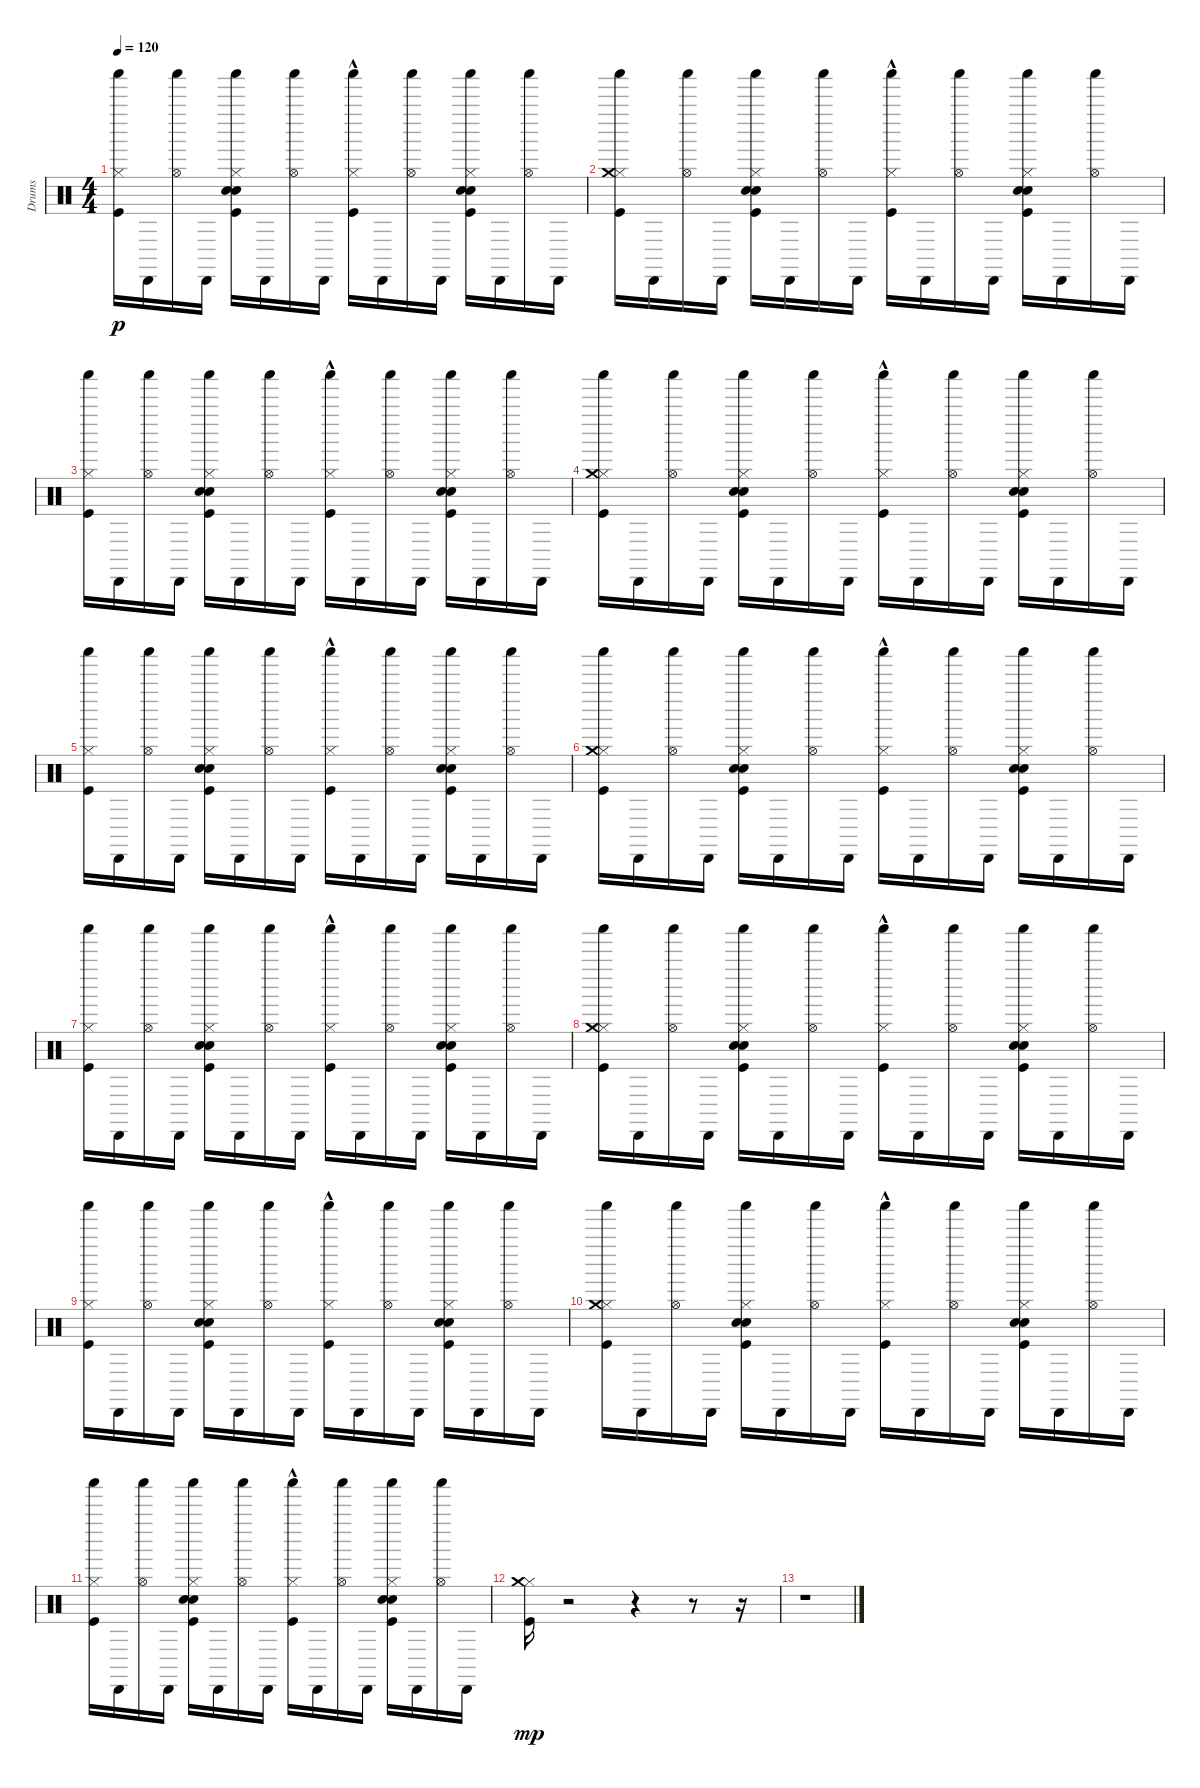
\track ("Drums" "Drums") {instrument percussion}
\staff {score}
\articulation defaults
\ts (4 4)
\tempo 120
\clef neutral
\ks c
("Kick (hit)" "Hi-Hat (closed)" "Shaker (hit)").16{dy p} "Cabasa (hit)".16 ("Hi-Hat (open)" "Shaker (hit)").16 "Cabasa (hit)".16 ("Kick (hit)" "Snare (hit) 2" "Electric Snare (hit)" "Hi-Hat (closed)" "Shaker (hit)").16 "Cabasa (hit)".16 ("Hi-Hat (open)" "Shaker (hit)").16 "Cabasa (hit)".16 ("Kick (hit)" "Hi-Hat (closed)" "Shaker (hit)"{hac}).16 "Cabasa (hit)".16 ("Hi-Hat (open)" "Shaker (hit)").16 "Cabasa (hit)".16 ("Kick (hit)" "Snare (hit) 2" "Electric Snare (hit)" "Hi-Hat (closed)" "Shaker (hit)").16 "Cabasa (hit)".16 ("Hi-Hat (open)" "Shaker (hit)").16 "Cabasa (hit)".16 |
("Kick (hit)" "Hi-Hat (closed)" "Crash medium (hit)" "Shaker (hit)").16 "Cabasa (hit)".16 ("Hi-Hat (open)" "Shaker (hit)").16 "Cabasa (hit)".16 ("Kick (hit)" "Snare (hit) 2" "Electric Snare (hit)" "Hi-Hat (closed)" "Shaker (hit)").16 "Cabasa (hit)".16 ("Hi-Hat (open)" "Shaker (hit)").16 "Cabasa (hit)".16 ("Kick (hit)" "Hi-Hat (closed)" "Shaker (hit)"{hac}).16 "Cabasa (hit)".16 ("Hi-Hat (open)" "Shaker (hit)").16 "Cabasa (hit)".16 ("Kick (hit)" "Snare (hit) 2" "Electric Snare (hit)" "Hi-Hat (closed)" "Shaker (hit)").16 "Cabasa (hit)".16 ("Hi-Hat (open)" "Shaker (hit)").16 "Cabasa (hit)".16 |
("Kick (hit)" "Hi-Hat (closed)" "Shaker (hit)").16 "Cabasa (hit)".16 ("Hi-Hat (open)" "Shaker (hit)").16 "Cabasa (hit)".16 ("Kick (hit)" "Snare (hit) 2" "Electric Snare (hit)" "Hi-Hat (closed)" "Shaker (hit)").16 "Cabasa (hit)".16 ("Hi-Hat (open)" "Shaker (hit)").16 "Cabasa (hit)".16 ("Kick (hit)" "Hi-Hat (closed)" "Shaker (hit)"{hac}).16 "Cabasa (hit)".16 ("Hi-Hat (open)" "Shaker (hit)").16 "Cabasa (hit)".16 ("Kick (hit)" "Snare (hit) 2" "Electric Snare (hit)" "Hi-Hat (closed)" "Shaker (hit)").16 "Cabasa (hit)".16 ("Hi-Hat (open)" "Shaker (hit)").16 "Cabasa (hit)".16 |
("Kick (hit)" "Hi-Hat (closed)" "Crash medium (hit)" "Shaker (hit)").16 "Cabasa (hit)".16 ("Hi-Hat (open)" "Shaker (hit)").16 "Cabasa (hit)".16 ("Kick (hit)" "Snare (hit) 2" "Electric Snare (hit)" "Hi-Hat (closed)" "Shaker (hit)").16 "Cabasa (hit)".16 ("Hi-Hat (open)" "Shaker (hit)").16 "Cabasa (hit)".16 ("Kick (hit)" "Hi-Hat (closed)" "Shaker (hit)"{hac}).16 "Cabasa (hit)".16 ("Hi-Hat (open)" "Shaker (hit)").16 "Cabasa (hit)".16 ("Kick (hit)" "Snare (hit) 2" "Electric Snare (hit)" "Hi-Hat (closed)" "Shaker (hit)").16 "Cabasa (hit)".16 ("Hi-Hat (open)" "Shaker (hit)").16 "Cabasa (hit)".16 |
("Kick (hit)" "Hi-Hat (closed)" "Shaker (hit)").16 "Cabasa (hit)".16 ("Hi-Hat (open)" "Shaker (hit)").16 "Cabasa (hit)".16 ("Kick (hit)" "Snare (hit) 2" "Electric Snare (hit)" "Hi-Hat (closed)" "Shaker (hit)").16 "Cabasa (hit)".16 ("Hi-Hat (open)" "Shaker (hit)").16 "Cabasa (hit)".16 ("Kick (hit)" "Hi-Hat (closed)" "Shaker (hit)"{hac}).16 "Cabasa (hit)".16 ("Hi-Hat (open)" "Shaker (hit)").16 "Cabasa (hit)".16 ("Kick (hit)" "Snare (hit) 2" "Electric Snare (hit)" "Hi-Hat (closed)" "Shaker (hit)").16 "Cabasa (hit)".16 ("Hi-Hat (open)" "Shaker (hit)").16 "Cabasa (hit)".16 |
("Kick (hit)" "Hi-Hat (closed)" "Crash medium (hit)" "Shaker (hit)").16 "Cabasa (hit)".16 ("Hi-Hat (open)" "Shaker (hit)").16 "Cabasa (hit)".16 ("Kick (hit)" "Snare (hit) 2" "Electric Snare (hit)" "Hi-Hat (closed)" "Shaker (hit)").16 "Cabasa (hit)".16 ("Hi-Hat (open)" "Shaker (hit)").16 "Cabasa (hit)".16 ("Kick (hit)" "Hi-Hat (closed)" "Shaker (hit)"{hac}).16 "Cabasa (hit)".16 ("Hi-Hat (open)" "Shaker (hit)").16 "Cabasa (hit)".16 ("Kick (hit)" "Snare (hit) 2" "Electric Snare (hit)" "Hi-Hat (closed)" "Shaker (hit)").16 "Cabasa (hit)".16 ("Hi-Hat (open)" "Shaker (hit)").16 "Cabasa (hit)".16 |
("Kick (hit)" "Hi-Hat (closed)" "Shaker (hit)").16 "Cabasa (hit)".16 ("Hi-Hat (open)" "Shaker (hit)").16 "Cabasa (hit)".16 ("Kick (hit)" "Snare (hit) 2" "Electric Snare (hit)" "Hi-Hat (closed)" "Shaker (hit)").16 "Cabasa (hit)".16 ("Hi-Hat (open)" "Shaker (hit)").16 "Cabasa (hit)".16 ("Kick (hit)" "Hi-Hat (closed)" "Shaker (hit)"{hac}).16 "Cabasa (hit)".16 ("Hi-Hat (open)" "Shaker (hit)").16 "Cabasa (hit)".16 ("Kick (hit)" "Snare (hit) 2" "Electric Snare (hit)" "Hi-Hat (closed)" "Shaker (hit)").16 "Cabasa (hit)".16 ("Hi-Hat (open)" "Shaker (hit)").16 "Cabasa (hit)".16 |
("Kick (hit)" "Hi-Hat (closed)" "Crash medium (hit)" "Shaker (hit)").16 "Cabasa (hit)".16 ("Hi-Hat (open)" "Shaker (hit)").16 "Cabasa (hit)".16 ("Kick (hit)" "Snare (hit) 2" "Electric Snare (hit)" "Hi-Hat (closed)" "Shaker (hit)").16 "Cabasa (hit)".16 ("Hi-Hat (open)" "Shaker (hit)").16 "Cabasa (hit)".16 ("Kick (hit)" "Hi-Hat (closed)" "Shaker (hit)"{hac}).16 "Cabasa (hit)".16 ("Hi-Hat (open)" "Shaker (hit)").16 "Cabasa (hit)".16 ("Kick (hit)" "Snare (hit) 2" "Electric Snare (hit)" "Hi-Hat (closed)" "Shaker (hit)").16 "Cabasa (hit)".16 ("Hi-Hat (open)" "Shaker (hit)").16 "Cabasa (hit)".16 |
("Kick (hit)" "Hi-Hat (closed)" "Shaker (hit)").16 "Cabasa (hit)".16 ("Hi-Hat (open)" "Shaker (hit)").16 "Cabasa (hit)".16 ("Kick (hit)" "Snare (hit) 2" "Electric Snare (hit)" "Hi-Hat (closed)" "Shaker (hit)").16 "Cabasa (hit)".16 ("Hi-Hat (open)" "Shaker (hit)").16 "Cabasa (hit)".16 ("Kick (hit)" "Hi-Hat (closed)" "Shaker (hit)"{hac}).16 "Cabasa (hit)".16 ("Hi-Hat (open)" "Shaker (hit)").16 "Cabasa (hit)".16 ("Kick (hit)" "Snare (hit) 2" "Electric Snare (hit)" "Hi-Hat (closed)" "Shaker (hit)").16 "Cabasa (hit)".16 ("Hi-Hat (open)" "Shaker (hit)").16 "Cabasa (hit)".16 |
("Kick (hit)" "Hi-Hat (closed)" "Crash medium (hit)" "Shaker (hit)").16 "Cabasa (hit)".16 ("Hi-Hat (open)" "Shaker (hit)").16 "Cabasa (hit)".16 ("Kick (hit)" "Snare (hit) 2" "Electric Snare (hit)" "Hi-Hat (closed)" "Shaker (hit)").16 "Cabasa (hit)".16 ("Hi-Hat (open)" "Shaker (hit)").16 "Cabasa (hit)".16 ("Kick (hit)" "Hi-Hat (closed)" "Shaker (hit)"{hac}).16 "Cabasa (hit)".16 ("Hi-Hat (open)" "Shaker (hit)").16 "Cabasa (hit)".16 ("Kick (hit)" "Snare (hit) 2" "Electric Snare (hit)" "Hi-Hat (closed)" "Shaker (hit)").16 "Cabasa (hit)".16 ("Hi-Hat (open)" "Shaker (hit)").16 "Cabasa (hit)".16 |
("Kick (hit)" "Hi-Hat (closed)" "Shaker (hit)").16 "Cabasa (hit)".16 ("Hi-Hat (open)" "Shaker (hit)").16 "Cabasa (hit)".16 ("Kick (hit)" "Snare (hit) 2" "Electric Snare (hit)" "Hi-Hat (closed)" "Shaker (hit)").16 "Cabasa (hit)".16 ("Hi-Hat (open)" "Shaker (hit)").16 "Cabasa (hit)".16 ("Kick (hit)" "Hi-Hat (closed)" "Shaker (hit)"{hac}).16 "Cabasa (hit)".16 ("Hi-Hat (open)" "Shaker (hit)").16 "Cabasa (hit)".16 ("Kick (hit)" "Snare (hit) 2" "Electric Snare (hit)" "Hi-Hat (closed)" "Shaker (hit)").16 "Cabasa (hit)".16 ("Hi-Hat (open)" "Shaker (hit)").16 "Cabasa (hit)".16 |
("Kick (hit)" "Hi-Hat (closed)" "Crash medium (hit)").16{dy mp} r.2 r.4 r.8 r.16 |
r.1
